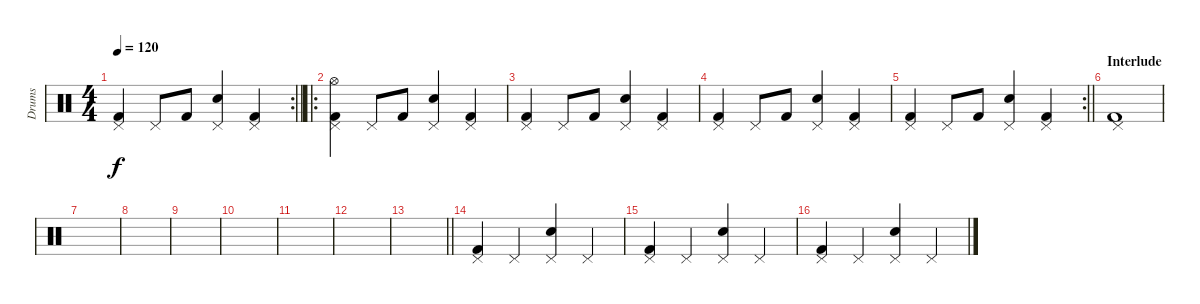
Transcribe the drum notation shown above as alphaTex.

\track ("Drums" "Drums") {instrument percussion}
\staff {score}
\articulation defaults
\rc 2
\ts (4 4)
\tempo 120
\clef neutral
\barLineRight lightlight
\ks c
("Pedal Hi-Hat (hit)" "Kick (hit) 2").4{dy f} "Pedal Hi-Hat (hit)".8 "Kick (hit) 2".8 ("Pedal Hi-Hat (hit)" "Electric Snare (hit)").4 ("Pedal Hi-Hat (hit)" "Kick (hit) 2").4 |
\ro
("Hi-Hat (open)" "Pedal Hi-Hat (hit)" "Kick (hit) 2").4 "Pedal Hi-Hat (hit)".8 "Kick (hit) 2".8 ("Pedal Hi-Hat (hit)" "Electric Snare (hit)").4 ("Pedal Hi-Hat (hit)" "Kick (hit) 2").4 |
("Pedal Hi-Hat (hit)" "Kick (hit) 2").4 "Pedal Hi-Hat (hit)".8 "Kick (hit) 2".8 ("Pedal Hi-Hat (hit)" "Electric Snare (hit)").4 ("Pedal Hi-Hat (hit)" "Kick (hit) 2").4 |
("Pedal Hi-Hat (hit)" "Kick (hit) 2").4 "Pedal Hi-Hat (hit)".8 "Kick (hit) 2".8 ("Pedal Hi-Hat (hit)" "Electric Snare (hit)").4 ("Pedal Hi-Hat (hit)" "Kick (hit) 2").4 |
\rc 2
\barLineRight lightlight
("Pedal Hi-Hat (hit)" "Kick (hit) 2").4 "Pedal Hi-Hat (hit)".8 "Kick (hit) 2".8 ("Pedal Hi-Hat (hit)" "Electric Snare (hit)").4 ("Pedal Hi-Hat (hit)" "Kick (hit) 2").4 |
\section ("" "Interlude")
("Pedal Hi-Hat (hit)" "Kick (hit) 2").1 |
|
|
|
|
|
|
\barLineRight lightlight
|
\section ("" "")
("Pedal Hi-Hat (hit)" "Kick (hit) 2").4 "Pedal Hi-Hat (hit)".4 ("Pedal Hi-Hat (hit)" "Electric Snare (hit)").4 "Pedal Hi-Hat (hit)".4 |
("Pedal Hi-Hat (hit)" "Kick (hit) 2").4 "Pedal Hi-Hat (hit)".4 ("Pedal Hi-Hat (hit)" "Electric Snare (hit)").4 "Pedal Hi-Hat (hit)".4 |
("Pedal Hi-Hat (hit)" "Kick (hit) 2").4 "Pedal Hi-Hat (hit)".4 ("Pedal Hi-Hat (hit)" "Electric Snare (hit)").4 "Pedal Hi-Hat (hit)".4
